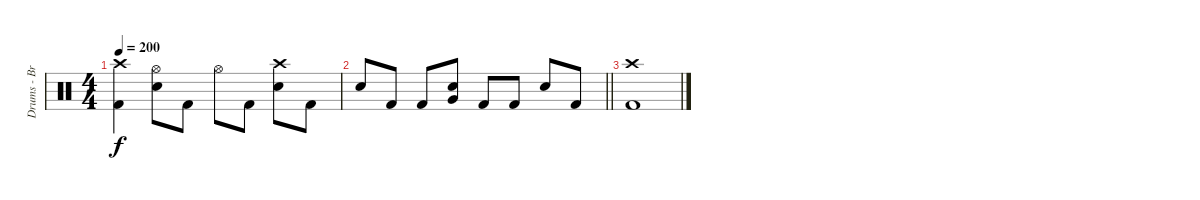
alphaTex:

\track ("Drums - Brandon Barnes" "Drums - Br") {instrument percussion}
\staff {score}
\articulation defaults
\ts (4 4)
\tempo 200
\clef neutral
\ks c
("Crash high (hit)" "Kick (hit) 2").4{dy f} ("Hi-Hat (open)" "Electric Snare (hit)").8 "Kick (hit) 2".8 "Hi-Hat (open)".8 "Kick (hit) 2".8 ("Crash high (hit)" "Electric Snare (hit)").8 "Kick (hit) 2".8 |
\barLineRight lightlight "Electric Snare (hit)".8 "Kick (hit) 2".8 "Kick (hit) 2".8
("Electric Snare (hit)" "Very Low Tom (hit)").8 "Kick (hit) 2".8 "Kick (hit) 2".8 "Electric Snare (hit)".8 "Kick (hit) 2".8 |
("Crash high (hit)" "Kick (hit) 2").1
